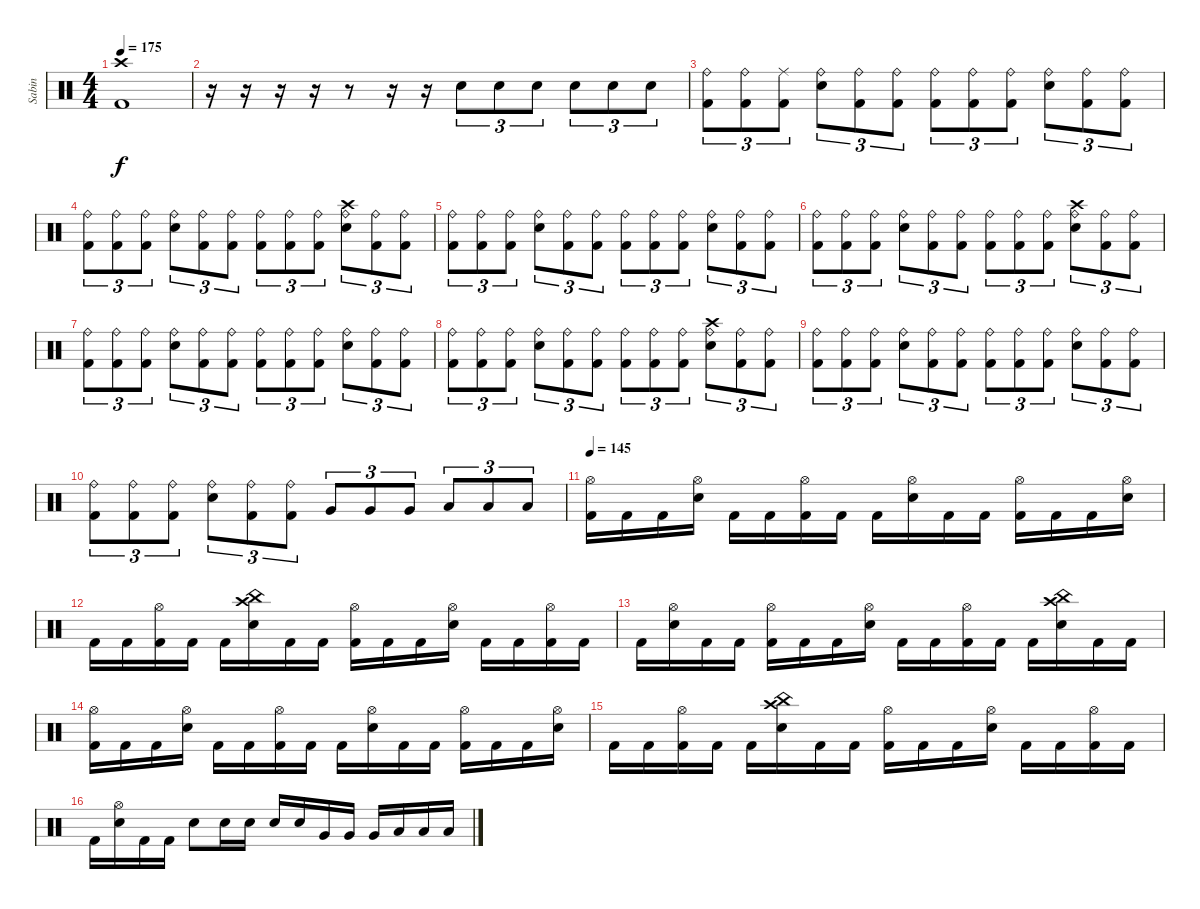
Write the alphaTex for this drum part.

\track ("Sabin" "Sabin") {instrument percussion}
\staff {score}
\articulation defaults
\ts (4 4)
\tempo 175
\clef neutral
\ks c
("Crash high (hit)" "Kick (hit) 2").1{dy f} |
r.16 r.16 r.16 r.16 r.8 r.16 r.16 "Snare (hit) 2".8{tu (3 2)} "Snare (hit) 2".8{tu (3 2)} "Snare (hit) 2".8{tu (3 2)} "Snare (hit) 2".8{tu (3 2)} "Snare (hit) 2".8{tu (3 2)} "Snare (hit) 2".8{tu (3 2)} |
("Ride (bell)" "Kick (hit) 2").8{tu (3 2)} ("Ride (bell)" "Kick (hit) 2").8{tu (3 2)} ("Ride (middle)" "Kick (hit) 2").8{tu (3 2)} ("Ride (bell)" "Snare (hit) 2").8{tu (3 2)} ("Ride (bell)" "Kick (hit) 2").8{tu (3 2)} ("Ride (bell)" "Kick (hit) 2").8{tu (3 2)} ("Ride (bell)" "Kick (hit) 2").8{tu (3 2)} ("Ride (bell)" "Kick (hit) 2").8{tu (3 2)} ("Ride (bell)" "Kick (hit) 2").8{tu (3 2)} ("Ride (bell)" "Snare (hit) 2").8{tu (3 2)} ("Ride (bell)" "Kick (hit) 2").8{tu (3 2)} ("Ride (bell)" "Kick (hit) 2").8{tu (3 2)} |
("Ride (bell)" "Kick (hit) 2").8{tu (3 2)} ("Ride (bell)" "Kick (hit) 2").8{tu (3 2)} ("Ride (bell)" "Kick (hit) 2").8{tu (3 2)} ("Ride (bell)" "Snare (hit) 2").8{tu (3 2)} ("Ride (bell)" "Kick (hit) 2").8{tu (3 2)} ("Ride (bell)" "Kick (hit) 2").8{tu (3 2)} ("Ride (bell)" "Kick (hit) 2").8{tu (3 2)} ("Ride (bell)" "Kick (hit) 2").8{tu (3 2)} ("Ride (bell)" "Kick (hit) 2").8{tu (3 2)} ("Ride (bell)" "Crash high (hit)" "Snare (hit) 2").8{tu (3 2)} ("Ride (bell)" "Kick (hit) 2").8{tu (3 2)} ("Ride (bell)" "Kick (hit) 2").8{tu (3 2)} |
("Ride (bell)" "Kick (hit) 2").8{tu (3 2)} ("Ride (bell)" "Kick (hit) 2").8{tu (3 2)} ("Ride (bell)" "Kick (hit) 2").8{tu (3 2)} ("Ride (bell)" "Snare (hit) 2").8{tu (3 2)} ("Ride (bell)" "Kick (hit) 2").8{tu (3 2)} ("Ride (bell)" "Kick (hit) 2").8{tu (3 2)} ("Ride (bell)" "Kick (hit) 2").8{tu (3 2)} ("Ride (bell)" "Kick (hit) 2").8{tu (3 2)} ("Ride (bell)" "Kick (hit) 2").8{tu (3 2)} ("Ride (bell)" "Snare (hit) 2").8{tu (3 2)} ("Ride (bell)" "Kick (hit) 2").8{tu (3 2)} ("Ride (bell)" "Kick (hit) 2").8{tu (3 2)} |
("Ride (bell)" "Kick (hit) 2").8{tu (3 2)} ("Ride (bell)" "Kick (hit) 2").8{tu (3 2)} ("Ride (bell)" "Kick (hit) 2").8{tu (3 2)} ("Ride (bell)" "Snare (hit) 2").8{tu (3 2)} ("Ride (bell)" "Kick (hit) 2").8{tu (3 2)} ("Ride (bell)" "Kick (hit) 2").8{tu (3 2)} ("Ride (bell)" "Kick (hit) 2").8{tu (3 2)} ("Ride (bell)" "Kick (hit) 2").8{tu (3 2)} ("Ride (bell)" "Kick (hit) 2").8{tu (3 2)} ("Ride (bell)" "Crash high (hit)" "Snare (hit) 2").8{tu (3 2)} ("Ride (bell)" "Kick (hit) 2").8{tu (3 2)} ("Ride (bell)" "Kick (hit) 2").8{tu (3 2)} |
("Ride (bell)" "Kick (hit) 2").8{tu (3 2)} ("Ride (bell)" "Kick (hit) 2").8{tu (3 2)} ("Ride (bell)" "Kick (hit) 2").8{tu (3 2)} ("Ride (bell)" "Snare (hit) 2").8{tu (3 2)} ("Ride (bell)" "Kick (hit) 2").8{tu (3 2)} ("Ride (bell)" "Kick (hit) 2").8{tu (3 2)} ("Ride (bell)" "Kick (hit) 2").8{tu (3 2)} ("Ride (bell)" "Kick (hit) 2").8{tu (3 2)} ("Ride (bell)" "Kick (hit) 2").8{tu (3 2)} ("Ride (bell)" "Snare (hit) 2").8{tu (3 2)} ("Ride (bell)" "Kick (hit) 2").8{tu (3 2)} ("Ride (bell)" "Kick (hit) 2").8{tu (3 2)} |
("Ride (bell)" "Kick (hit) 2").8{tu (3 2)} ("Ride (bell)" "Kick (hit) 2").8{tu (3 2)} ("Ride (bell)" "Kick (hit) 2").8{tu (3 2)} ("Ride (bell)" "Snare (hit) 2").8{tu (3 2)} ("Ride (bell)" "Kick (hit) 2").8{tu (3 2)} ("Ride (bell)" "Kick (hit) 2").8{tu (3 2)} ("Ride (bell)" "Kick (hit) 2").8{tu (3 2)} ("Ride (bell)" "Kick (hit) 2").8{tu (3 2)} ("Ride (bell)" "Kick (hit) 2").8{tu (3 2)} ("Ride (bell)" "Crash high (hit)" "Snare (hit) 2").8{tu (3 2)} ("Ride (bell)" "Kick (hit) 2").8{tu (3 2)} ("Ride (bell)" "Kick (hit) 2").8{tu (3 2)} |
("Ride (bell)" "Kick (hit) 2").8{tu (3 2)} ("Ride (bell)" "Kick (hit) 2").8{tu (3 2)} ("Ride (bell)" "Kick (hit) 2").8{tu (3 2)} ("Ride (bell)" "Snare (hit) 2").8{tu (3 2)} ("Ride (bell)" "Kick (hit) 2").8{tu (3 2)} ("Ride (bell)" "Kick (hit) 2").8{tu (3 2)} ("Ride (bell)" "Kick (hit) 2").8{tu (3 2)} ("Ride (bell)" "Kick (hit) 2").8{tu (3 2)} ("Ride (bell)" "Kick (hit) 2").8{tu (3 2)} ("Ride (bell)" "Snare (hit) 2").8{tu (3 2)} ("Ride (bell)" "Kick (hit) 2").8{tu (3 2)} ("Ride (bell)" "Kick (hit) 2").8{tu (3 2)} |
("Ride (bell)" "Kick (hit) 2").8{tu (3 2)} ("Ride (bell)" "Kick (hit) 2").8{tu (3 2)} ("Ride (bell)" "Kick (hit) 2").8{tu (3 2)} ("Ride (bell)" "Snare (hit) 2").8{tu (3 2)} ("Ride (bell)" "Kick (hit) 2").8{tu (3 2)} ("Ride (bell)" "Kick (hit) 2").8{tu (3 2)} "Very Low Tom (hit)".8{tu (3 2)} "Very Low Tom (hit)".8{tu (3 2)} "Very Low Tom (hit)".8{tu (3 2)} "Low Floor Tom (hit)".8{tu (3 2)} "Low Floor Tom (hit)".8{tu (3 2)} "Low Floor Tom (hit)".8{tu (3 2)} |
\tempo 145
("Hi-Hat (open)" "Kick (hit) 2").16 "Kick (hit) 2".16 "Kick (hit) 2".16 ("Hi-Hat (open)" "Snare (hit) 2").16 "Kick (hit) 2".16 "Kick (hit) 2".16 ("Hi-Hat (open)" "Kick (hit) 2").16 "Kick (hit) 2".16 "Kick (hit) 2".16 ("Hi-Hat (open)" "Snare (hit) 2").16 "Kick (hit) 2".16 "Kick (hit) 2".16 ("Hi-Hat (open)" "Kick (hit) 2").16 "Kick (hit) 2".16 "Kick (hit) 2".16 ("Hi-Hat (open)" "Snare (hit) 2").16 |
"Kick (hit) 2".16 "Kick (hit) 2".16 ("Hi-Hat (open)" "Kick (hit) 2").16 "Kick (hit) 2".16 "Kick (hit) 2".16 ("China (hit)" "Crash high (hit)" "Snare (hit) 2").16 "Kick (hit) 2".16 "Kick (hit) 2".16 ("Hi-Hat (open)" "Kick (hit) 2").16 "Kick (hit) 2".16 "Kick (hit) 2".16 ("Hi-Hat (open)" "Snare (hit) 2").16 "Kick (hit) 2".16 "Kick (hit) 2".16 ("Hi-Hat (open)" "Kick (hit) 2").16 "Kick (hit) 2".16 |
"Kick (hit) 2".16 ("Hi-Hat (open)" "Snare (hit) 2").16 "Kick (hit) 2".16 "Kick (hit) 2".16 ("Hi-Hat (open)" "Kick (hit) 2").16 "Kick (hit) 2".16 "Kick (hit) 2".16 ("Hi-Hat (open)" "Snare (hit) 2").16 "Kick (hit) 2".16 "Kick (hit) 2".16 ("Hi-Hat (open)" "Kick (hit) 2").16 "Kick (hit) 2".16 "Kick (hit) 2".16 ("China (hit)" "Crash high (hit)" "Snare (hit) 2").16 "Kick (hit) 2".16 "Kick (hit) 2".16 |
("Hi-Hat (open)" "Kick (hit) 2").16 "Kick (hit) 2".16 "Kick (hit) 2".16 ("Hi-Hat (open)" "Snare (hit) 2").16 "Kick (hit) 2".16 "Kick (hit) 2".16 ("Hi-Hat (open)" "Kick (hit) 2").16 "Kick (hit) 2".16 "Kick (hit) 2".16 ("Hi-Hat (open)" "Snare (hit) 2").16 "Kick (hit) 2".16 "Kick (hit) 2".16 ("Hi-Hat (open)" "Kick (hit) 2").16 "Kick (hit) 2".16 "Kick (hit) 2".16 ("Hi-Hat (open)" "Snare (hit) 2").16 |
"Kick (hit) 2".16 "Kick (hit) 2".16 ("Hi-Hat (open)" "Kick (hit) 2").16 "Kick (hit) 2".16 "Kick (hit) 2".16 ("Crash high (hit)" "China (hit)" "Snare (hit) 2").16 "Kick (hit) 2".16 "Kick (hit) 2".16 ("Hi-Hat (open)" "Kick (hit) 2").16 "Kick (hit) 2".16 "Kick (hit) 2".16 ("Hi-Hat (open)" "Snare (hit) 2").16 "Kick (hit) 2".16 "Kick (hit) 2".16 ("Hi-Hat (open)" "Kick (hit) 2").16 "Kick (hit) 2".16 |
"Kick (hit) 2".16 ("Hi-Hat (open)" "Snare (hit) 2").16 "Kick (hit) 2".16 "Kick (hit) 2".16 "Snare (hit) 2".8 "Snare (hit) 2".16 "Snare (hit) 2".16 "Snare (hit) 2".16 "Snare (hit) 2".16 "Very Low Tom (hit)".16 "Very Low Tom (hit)".16 "Very Low Tom (hit)".16 "Low Floor Tom (hit)".16 "Low Floor Tom (hit)".16 "Low Floor Tom (hit)".16
